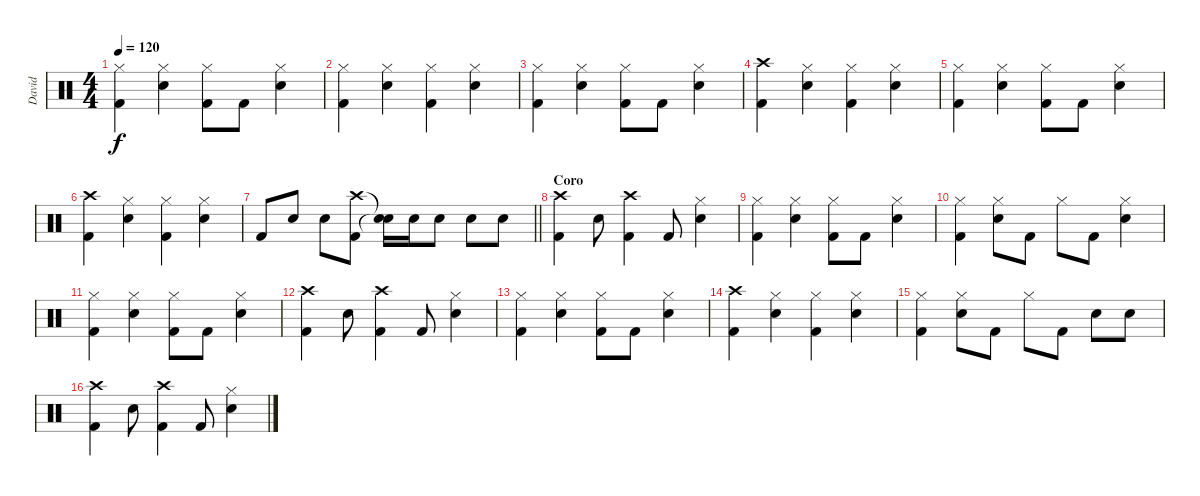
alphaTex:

\track ("David" "David") {instrument percussion}
\staff {score}
\articulation defaults
\ts (4 4)
\tempo 120
\clef neutral
\ks c
("Hi-Hat (closed)" "Kick (hit) 2").4{dy f} ("Hi-Hat (closed)" "Snare (hit) 2").4 ("Hi-Hat (closed)" "Kick (hit) 2").8 "Kick (hit) 2".8 ("Hi-Hat (closed)" "Snare (hit) 2").4 |
("Hi-Hat (closed)" "Kick (hit) 2").4 ("Hi-Hat (closed)" "Snare (hit) 2").4 ("Hi-Hat (closed)" "Kick (hit) 2").4 ("Hi-Hat (closed)" "Snare (hit) 2").4 |
("Hi-Hat (closed)" "Kick (hit) 2").4 ("Hi-Hat (closed)" "Snare (hit) 2").4 ("Hi-Hat (closed)" "Kick (hit) 2").8 "Kick (hit) 2".8 ("Hi-Hat (closed)" "Snare (hit) 2").4 |
("Crash high (hit)" "Kick (hit) 2").4 ("Hi-Hat (closed)" "Snare (hit) 2").4 ("Hi-Hat (closed)" "Kick (hit) 2").4 ("Hi-Hat (closed)" "Snare (hit) 2").4 |
("Hi-Hat (closed)" "Kick (hit) 2").4 ("Hi-Hat (closed)" "Snare (hit) 2").4 ("Hi-Hat (closed)" "Kick (hit) 2").8 "Kick (hit) 2".8 ("Hi-Hat (closed)" "Snare (hit) 2").4 |
("Crash high (hit)" "Kick (hit) 2").4 ("Hi-Hat (closed)" "Snare (hit) 2").4 ("Hi-Hat (closed)" "Kick (hit) 2").4 ("Hi-Hat (closed)" "Snare (hit) 2").4 |
\barLineRight lightlight "Kick (hit) 2".8 "Snare (hit) 2".8 "Snare (hit) 2".8
("Crash high (hit)" "Kick (hit) 2").8 ("Snare (hit)"{t} "Snare (hit)"{t}).16 "Snare (hit) 2".16 "Snare (hit) 2".8 "Snare (hit) 2".8 "Snare (hit) 2".8 |
\section ("" "Coro")
("Crash high (hit)" "Kick (hit) 2").4 "Snare (hit) 2".8 ("Crash high (hit)" "Kick (hit) 2").4 "Kick (hit) 2".8 ("Hi-Hat (closed)" "Snare (hit) 2").4 |
("Hi-Hat (closed)" "Kick (hit) 2").4 ("Hi-Hat (closed)" "Snare (hit) 2").4 ("Hi-Hat (closed)" "Kick (hit) 2").8 "Kick (hit) 2".8 ("Hi-Hat (closed)" "Snare (hit) 2").4 |
("Hi-Hat (closed)" "Kick (hit) 2").4 ("Hi-Hat (closed)" "Snare (hit) 2").8 "Kick (hit) 2".8 "Hi-Hat (closed)".8 "Kick (hit) 2".8 ("Hi-Hat (closed)" "Snare (hit) 2").4 |
("Hi-Hat (closed)" "Kick (hit) 2").4 ("Hi-Hat (closed)" "Snare (hit) 2").4 ("Hi-Hat (closed)" "Kick (hit) 2").8 "Kick (hit) 2".8 ("Hi-Hat (closed)" "Snare (hit) 2").4 |
("Crash high (hit)" "Kick (hit) 2").4 "Snare (hit) 2".8 ("Crash high (hit)" "Kick (hit) 2").4 "Kick (hit) 2".8 ("Hi-Hat (closed)" "Snare (hit) 2").4 |
("Hi-Hat (closed)" "Kick (hit) 2").4 ("Hi-Hat (closed)" "Snare (hit) 2").4 ("Hi-Hat (closed)" "Kick (hit) 2").8 "Kick (hit) 2".8 ("Hi-Hat (closed)" "Snare (hit) 2").4 |
("Crash high (hit)" "Kick (hit) 2").4 ("Hi-Hat (closed)" "Snare (hit) 2").4 ("Hi-Hat (closed)" "Kick (hit) 2").4 ("Hi-Hat (closed)" "Snare (hit) 2").4 |
("Hi-Hat (closed)" "Kick (hit) 2").4 ("Hi-Hat (closed)" "Snare (hit) 2").8 "Kick (hit) 2".8 "Hi-Hat (closed)".8 "Kick (hit) 2".8 "Snare (hit) 2".8 "Snare (hit) 2".8 |
("Crash high (hit)" "Kick (hit) 2").4 "Snare (hit) 2".8 ("Crash high (hit)" "Kick (hit) 2").4 "Kick (hit) 2".8 ("Hi-Hat (closed)" "Snare (hit) 2").4
